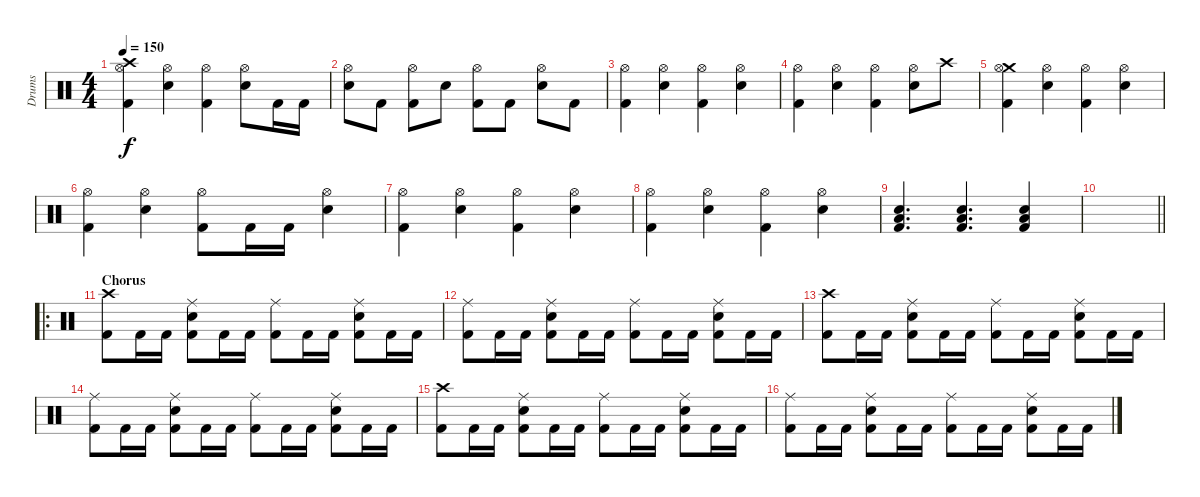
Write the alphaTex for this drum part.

\track ("Drums" "Drums") {instrument percussion}
\staff {score}
\articulation defaults
\ts (4 4)
\tempo 150
\clef neutral
\ks c
("Crash high (hit)" "Hi-Hat (open)" "Kick (hit) 2").4{dy f} ("Hi-Hat (open)" "Snare (hit) 2").4 ("Hi-Hat (open)" "Kick (hit) 2").4 ("Hi-Hat (open)" "Snare (hit) 2").8 "Kick (hit) 2".16 "Kick (hit) 2".16 |
("Hi-Hat (open)" "Snare (hit) 2").8 "Kick (hit) 2".8 ("Hi-Hat (open)" "Kick (hit) 2").8 "Snare (hit) 2".8 ("Hi-Hat (open)" "Kick (hit) 2").8 "Kick (hit) 2".8 ("Hi-Hat (open)" "Snare (hit) 2").8 "Kick (hit) 2".8 |
("Hi-Hat (open)" "Kick (hit) 2").4 ("Hi-Hat (open)" "Snare (hit) 2").4 ("Hi-Hat (open)" "Kick (hit) 2").4 ("Hi-Hat (open)" "Snare (hit) 2").4 |
("Hi-Hat (open)" "Kick (hit) 2").4 ("Hi-Hat (open)" "Snare (hit) 2").4 ("Hi-Hat (open)" "Kick (hit) 2").4 ("Hi-Hat (open)" "Snare (hit) 2").8 "Crash high (hit)".8 |
("Crash medium (hit)" "Hi-Hat (open)" "Kick (hit) 2").4 ("Hi-Hat (open)" "Snare (hit) 2").4 ("Hi-Hat (open)" "Kick (hit) 2").4 ("Hi-Hat (open)" "Snare (hit) 2").4 |
("Hi-Hat (open)" "Kick (hit) 2").4 ("Hi-Hat (open)" "Snare (hit) 2").4 ("Hi-Hat (open)" "Kick (hit) 2").8 "Kick (hit) 2".16 "Kick (hit) 2".16 ("Hi-Hat (open)" "Snare (hit) 2").4 |
("Hi-Hat (open)" "Kick (hit) 2").4 ("Hi-Hat (open)" "Snare (hit) 2").4 ("Hi-Hat (open)" "Kick (hit) 2").4 ("Hi-Hat (open)" "Snare (hit) 2").4 |
("Hi-Hat (open)" "Kick (hit) 2").4 ("Hi-Hat (open)" "Snare (hit) 2").4 ("Hi-Hat (open)" "Kick (hit) 2").4 ("Hi-Hat (open)" "Snare (hit) 2").4 |
("Low Tom (hit)" "Snare (hit) 2" "Kick (hit) 2").4{d} ("Low Tom (hit)" "Snare (hit) 2" "Kick (hit) 2").4{d} ("Low Tom (hit)" "Snare (hit) 2" "Kick (hit) 2").4 |
\barLineRight lightlight
|
\ro
\section ("" "Chorus")
("Crash high (hit)" "Kick (hit) 2").8 "Kick (hit) 2".16 "Kick (hit) 2".16 ("Ride (middle)" "Snare (hit) 2" "Kick (hit) 2").8 "Kick (hit) 2".16 "Kick (hit) 2".16 ("Ride (middle)" "Kick (hit) 2").8 "Kick (hit) 2".16 "Kick (hit) 2".16 ("Ride (middle)" "Snare (hit) 2" "Kick (hit) 2").8 "Kick (hit) 2".16 "Kick (hit) 2".16 |
("Ride (middle)" "Kick (hit) 2").8 "Kick (hit) 2".16 "Kick (hit) 2".16 ("Ride (middle)" "Snare (hit) 2" "Kick (hit) 2").8 "Kick (hit) 2".16 "Kick (hit) 2".16 ("Ride (middle)" "Kick (hit) 2").8 "Kick (hit) 2".16 "Kick (hit) 2".16 ("Ride (middle)" "Snare (hit) 2" "Kick (hit) 2").8 "Kick (hit) 2".16 "Kick (hit) 2".16 |
("Crash high (hit)" "Kick (hit) 2").8 "Kick (hit) 2".16 "Kick (hit) 2".16 ("Ride (middle)" "Snare (hit) 2" "Kick (hit) 2").8 "Kick (hit) 2".16 "Kick (hit) 2".16 ("Ride (middle)" "Kick (hit) 2").8 "Kick (hit) 2".16 "Kick (hit) 2".16 ("Ride (middle)" "Snare (hit) 2" "Kick (hit) 2").8 "Kick (hit) 2".16 "Kick (hit) 2".16 |
("Ride (middle)" "Kick (hit) 2").8 "Kick (hit) 2".16 "Kick (hit) 2".16 ("Ride (middle)" "Snare (hit) 2" "Kick (hit) 2").8 "Kick (hit) 2".16 "Kick (hit) 2".16 ("Ride (middle)" "Kick (hit) 2").8 "Kick (hit) 2".16 "Kick (hit) 2".16 ("Ride (middle)" "Snare (hit) 2" "Kick (hit) 2").8 "Kick (hit) 2".16 "Kick (hit) 2".16 |
("Crash high (hit)" "Kick (hit) 2").8 "Kick (hit) 2".16 "Kick (hit) 2".16 ("Ride (middle)" "Snare (hit) 2" "Kick (hit) 2").8 "Kick (hit) 2".16 "Kick (hit) 2".16 ("Ride (middle)" "Kick (hit) 2").8 "Kick (hit) 2".16 "Kick (hit) 2".16 ("Ride (middle)" "Snare (hit) 2" "Kick (hit) 2").8 "Kick (hit) 2".16 "Kick (hit) 2".16 |
("Ride (middle)" "Kick (hit) 2").8 "Kick (hit) 2".16 "Kick (hit) 2".16 ("Ride (middle)" "Snare (hit) 2" "Kick (hit) 2").8 "Kick (hit) 2".16 "Kick (hit) 2".16 ("Ride (middle)" "Kick (hit) 2").8 "Kick (hit) 2".16 "Kick (hit) 2".16 ("Ride (middle)" "Snare (hit) 2" "Kick (hit) 2").8 "Kick (hit) 2".16 "Kick (hit) 2".16
